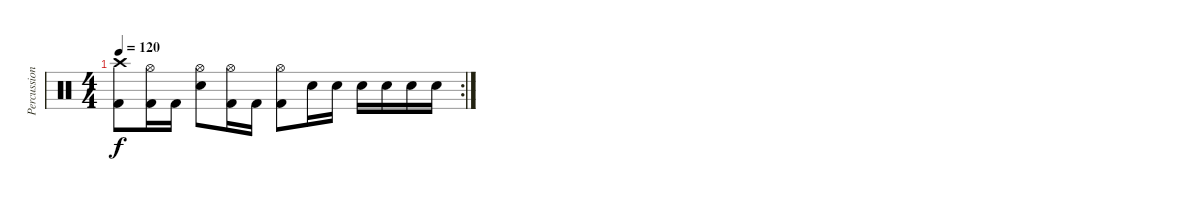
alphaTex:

\track ("Percussion" "Percussion") {instrument percussion}
\staff {score}
\articulation defaults
\rc 2
\ts (4 4)
\tempo 120
\clef neutral
\ks c
("Crash high (hit)" "Kick (hit) 2").8{dy f} ("Hi-Hat (open)" "Kick (hit) 2").16 "Kick (hit) 2".16 ("Hi-Hat (open)" "Snare (hit) 2").8 ("Hi-Hat (open)" "Kick (hit) 2").16 "Kick (hit) 2".16 ("Hi-Hat (open)" "Kick (hit) 2").8 "Snare (hit) 2".16 "Snare (hit) 2".16 "Snare (hit) 2".16 "Snare (hit) 2".16 "Snare (hit) 2".16 "Snare (hit) 2".16
